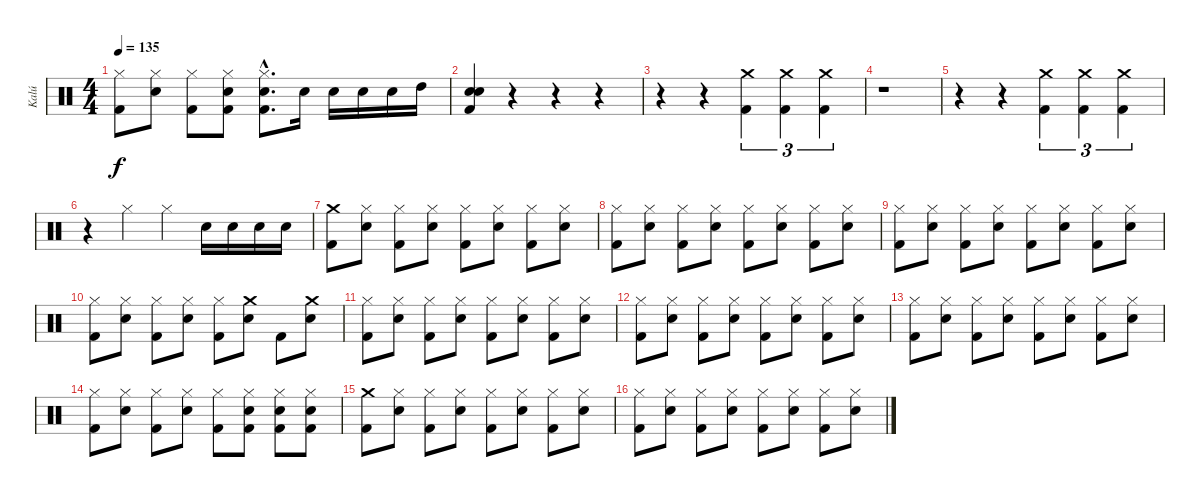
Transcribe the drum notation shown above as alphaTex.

\track ("Kalú" "Kalú") {instrument percussion}
\staff {score}
\articulation defaults
\ts (4 4)
\tempo 135
\clef neutral
\ks c
("Hi-Hat (closed)" "Kick (hit) 2").8{dy f} ("Hi-Hat (closed)" "Electric Snare (hit)").8 ("Hi-Hat (closed)" "Kick (hit) 2").8 ("Hi-Hat (closed)" "Kick (hit) 2" "Electric Snare (hit)").8 ("Hi-Hat (closed)"{hac} "Kick (hit) 2"{hac} "Electric Snare (hit)"{hac}).8{d} "Electric Snare (hit)".16 "Electric Snare (hit)".16 "Electric Snare (hit)".16 "Electric Snare (hit)".16 "High Tom (hit)".16 |
("Electric Snare (hit)" "Electric Snare (hit)" "Kick (hit) 2").4 r.4 r.4 r.4 |
r.4 r.4 ("Crash medium (hit)" "Kick (hit) 2").4{tu (3 2)} ("Crash medium (hit)" "Kick (hit) 2").4{tu (3 2)} ("Crash medium (hit)" "Kick (hit) 2").4{tu (3 2)} |
r.1 |
r.4 r.4 ("Crash medium (hit)" "Kick (hit) 2").4{tu (3 2)} ("Crash medium (hit)" "Kick (hit) 2").4{tu (3 2)} ("Crash medium (hit)" "Kick (hit) 2").4{tu (3 2)} |
r.4 "Hi-Hat (closed)".4 "Hi-Hat (closed)".4 "Electric Snare (hit)".16 "Electric Snare (hit)".16 "Electric Snare (hit)".16 "Electric Snare (hit)".16 |
("Crash medium (hit)" "Kick (hit) 2").8 ("Hi-Hat (closed)" "Electric Snare (hit)").8 ("Hi-Hat (closed)" "Kick (hit) 2").8 ("Hi-Hat (closed)" "Electric Snare (hit)").8 ("Hi-Hat (closed)" "Kick (hit) 2").8 ("Hi-Hat (closed)" "Electric Snare (hit)").8 ("Hi-Hat (closed)" "Kick (hit) 2").8 ("Hi-Hat (closed)" "Electric Snare (hit)").8 |
("Hi-Hat (closed)" "Kick (hit) 2").8 ("Hi-Hat (closed)" "Electric Snare (hit)").8 ("Hi-Hat (closed)" "Kick (hit) 2").8 ("Hi-Hat (closed)" "Electric Snare (hit)").8 ("Hi-Hat (closed)" "Kick (hit) 2").8 ("Hi-Hat (closed)" "Electric Snare (hit)").8 ("Hi-Hat (closed)" "Kick (hit) 2").8 ("Hi-Hat (closed)" "Electric Snare (hit)").8 |
("Hi-Hat (closed)" "Kick (hit) 2").8 ("Hi-Hat (closed)" "Electric Snare (hit)").8 ("Hi-Hat (closed)" "Kick (hit) 2").8 ("Hi-Hat (closed)" "Electric Snare (hit)").8 ("Hi-Hat (closed)" "Kick (hit) 2").8 ("Hi-Hat (closed)" "Electric Snare (hit)").8 ("Hi-Hat (closed)" "Kick (hit) 2").8 ("Hi-Hat (closed)" "Electric Snare (hit)").8 |
("Hi-Hat (closed)" "Kick (hit) 2").8 ("Hi-Hat (closed)" "Electric Snare (hit)").8 ("Hi-Hat (closed)" "Kick (hit) 2").8 ("Hi-Hat (closed)" "Electric Snare (hit)").8 ("Hi-Hat (closed)" "Kick (hit) 2").8 ("Crash medium (hit)" "Electric Snare (hit)").8 "Kick (hit) 2".8 ("Crash medium (hit)" "Electric Snare (hit)").8 |
("Hi-Hat (closed)" "Kick (hit) 2").8 ("Hi-Hat (closed)" "Electric Snare (hit)").8 ("Hi-Hat (closed)" "Kick (hit) 2").8 ("Hi-Hat (closed)" "Electric Snare (hit)").8 ("Hi-Hat (closed)" "Kick (hit) 2").8 ("Hi-Hat (closed)" "Electric Snare (hit)").8 ("Hi-Hat (closed)" "Kick (hit) 2").8 ("Hi-Hat (closed)" "Electric Snare (hit)").8 |
("Hi-Hat (closed)" "Kick (hit) 2").8 ("Hi-Hat (closed)" "Electric Snare (hit)").8 ("Hi-Hat (closed)" "Kick (hit) 2").8 ("Hi-Hat (closed)" "Electric Snare (hit)").8 ("Hi-Hat (closed)" "Kick (hit) 2").8 ("Hi-Hat (closed)" "Electric Snare (hit)").8 ("Hi-Hat (closed)" "Kick (hit) 2").8 ("Hi-Hat (closed)" "Electric Snare (hit)").8 |
("Hi-Hat (closed)" "Kick (hit) 2").8 ("Hi-Hat (closed)" "Electric Snare (hit)").8 ("Hi-Hat (closed)" "Kick (hit) 2").8 ("Hi-Hat (closed)" "Electric Snare (hit)").8 ("Hi-Hat (closed)" "Kick (hit) 2").8 ("Hi-Hat (closed)" "Electric Snare (hit)").8 ("Hi-Hat (closed)" "Kick (hit) 2").8 ("Hi-Hat (closed)" "Electric Snare (hit)").8 |
("Hi-Hat (closed)" "Kick (hit) 2").8 ("Hi-Hat (closed)" "Electric Snare (hit)").8 ("Hi-Hat (closed)" "Kick (hit) 2").8 ("Hi-Hat (closed)" "Electric Snare (hit)").8 ("Hi-Hat (closed)" "Kick (hit) 2").8 ("Hi-Hat (closed)" "Kick (hit) 2" "Electric Snare (hit)").8 ("Hi-Hat (closed)" "Kick (hit) 2" "Electric Snare (hit)").8 ("Hi-Hat (closed)" "Kick (hit) 2" "Electric Snare (hit)").8 |
("Crash medium (hit)" "Kick (hit) 2").8 ("Hi-Hat (closed)" "Electric Snare (hit)").8 ("Hi-Hat (closed)" "Kick (hit) 2").8 ("Hi-Hat (closed)" "Electric Snare (hit)").8 ("Hi-Hat (closed)" "Kick (hit) 2").8 ("Hi-Hat (closed)" "Electric Snare (hit)").8 ("Hi-Hat (closed)" "Kick (hit) 2").8 ("Hi-Hat (closed)" "Electric Snare (hit)").8 |
("Hi-Hat (closed)" "Kick (hit) 2").8 ("Hi-Hat (closed)" "Electric Snare (hit)").8 ("Hi-Hat (closed)" "Kick (hit) 2").8 ("Hi-Hat (closed)" "Electric Snare (hit)").8 ("Hi-Hat (closed)" "Kick (hit) 2").8 ("Hi-Hat (closed)" "Electric Snare (hit)").8 ("Hi-Hat (closed)" "Kick (hit) 2").8 ("Hi-Hat (closed)" "Electric Snare (hit)").8
